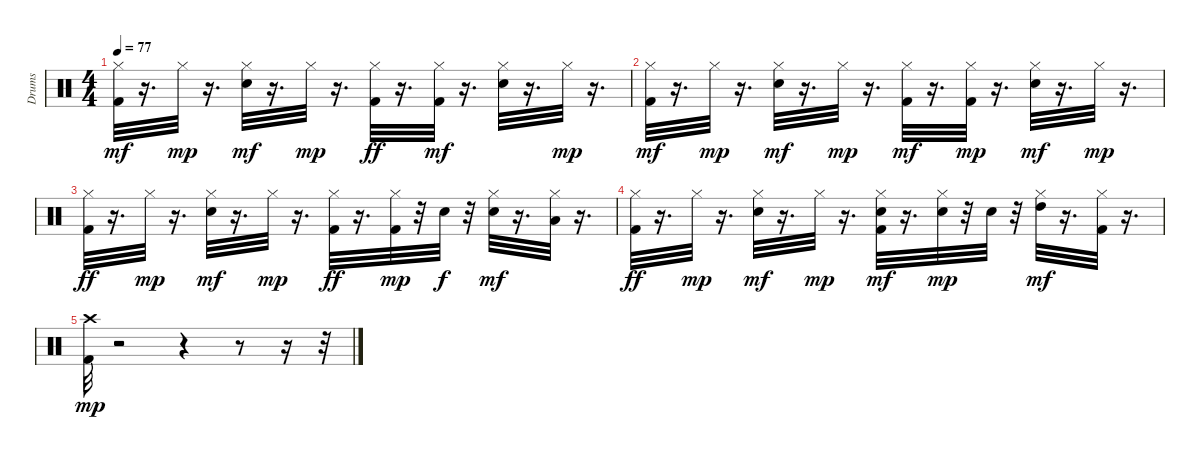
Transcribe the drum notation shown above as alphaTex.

\track ("Drums" "Drums") {instrument percussion}
\staff {score}
\articulation defaults
\ts (4 4)
\tempo 77
\clef neutral
\ks c
("Kick (hit) 2" "Hi-Hat (closed)").32{dy mf} r.16{d} "Hi-Hat (closed)".32{dy mp} r.16{d} ("Electric Snare (hit)" "Hi-Hat (closed)").32{dy mf} r.16{d} "Hi-Hat (closed)".32{dy mp} r.16{d} ("Hi-Hat (closed)" "Kick (hit) 2").32{dy ff} r.16{d} ("Hi-Hat (closed)" "Kick (hit) 2").32{dy mf} r.16{d} ("Hi-Hat (closed)" "Electric Snare (hit)").32 r.16{d} "Hi-Hat (closed)".32{dy mp} r.16{d} |
("Kick (hit) 2" "Hi-Hat (closed)").32{dy mf} r.16{d} "Hi-Hat (closed)".32{dy mp} r.16{d} ("Hi-Hat (closed)" "Electric Snare (hit)").32{dy mf} r.16{d} "Hi-Hat (closed)".32{dy mp} r.16{d} ("Kick (hit) 2" "Hi-Hat (closed)").32{dy mf} r.16{d} ("Kick (hit) 2" "Hi-Hat (closed)").32{dy mp} r.16{d} ("Electric Snare (hit)" "Hi-Hat (closed)").32{dy mf} r.16{d} "Hi-Hat (closed)".32{dy mp} r.16{d} |
("Hi-Hat (closed)" "Kick (hit) 2").32{dy ff} r.16{d} "Hi-Hat (closed)".32{dy mp} r.16{d} ("Hi-Hat (closed)" "Electric Snare (hit)").32{dy mf} r.16{d} "Hi-Hat (closed)".32{dy mp} r.16{d} ("Hi-Hat (closed)" "Kick (hit) 2").32{dy ff} r.16{d} ("Kick (hit) 2" "Hi-Hat (closed)").32{dy mp} r.32 "Electric Snare (hit)".32{dy f} r.32 ("Electric Snare (hit)" "Hi-Hat (closed)").32{dy mf} r.16{d} ("Hi-Hat (closed)" "Low Floor Tom (hit)").32 r.16{d} |
("Hi-Hat (closed)" "Kick (hit) 2").32{dy ff} r.16{d} "Hi-Hat (closed)".32{dy mp} r.16{d} ("Hi-Hat (closed)" "Electric Snare (hit)").32{dy mf} r.16{d} "Hi-Hat (closed)".32{dy mp} r.16{d} ("Kick (hit) 2" "Hi-Hat (closed)" "Electric Snare (hit)").32{dy mf} r.16{d} ("Electric Snare (hit)" "Hi-Hat (closed)").32{dy mp} r.32 "Electric Snare (hit)".32 r.32 ("Hi-Hat (closed)" "High Tom (hit)").32{dy mf} r.16{d} ("Hi-Hat (closed)" "Kick (hit) 2").32 r.16{d} |
("Kick (hit) 2" "Crash high (hit)").32{dy mp} r.2 r.4 r.8 r.16 r.32
